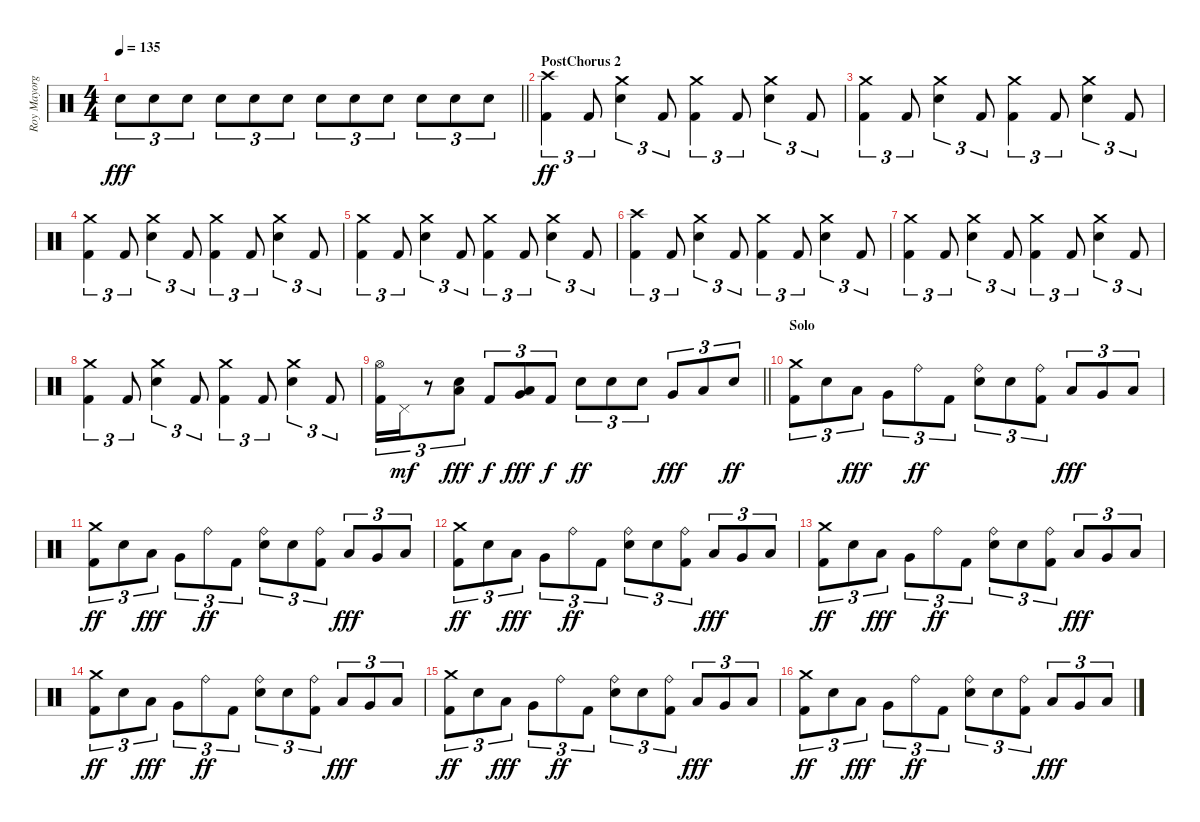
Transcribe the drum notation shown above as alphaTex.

\track ("Roy Mayorga" "Roy Mayorg") {instrument percussion}
\staff {score}
\articulation defaults
\ts (4 4)
\tempo 135
\clef neutral
\barLineRight lightlight
\ks c "Electric Snare (hit)".8{tu (3 2) dy fff} "Electric Snare (hit)".8{tu (3 2)} "Electric Snare (hit)".8{tu (3 2)} "Electric Snare (hit)".8{tu (3 2)} "Electric Snare (hit)".8{tu (3 2)} "Electric Snare (hit)".8{tu (3 2)} "Electric Snare (hit)".8{tu (3 2)} "Electric Snare (hit)".8{tu (3 2)} "Electric Snare (hit)".8{tu (3 2)} "Electric Snare (hit)".8{tu (3 2)} "Electric Snare (hit)".8{tu (3 2)} "Electric Snare (hit)".8{tu (3 2)}
|
\section ("" "PostChorus 2")
("Crash high (hit)" "Kick (hit) 2").4{tu (3 2) dy ff} "Kick (hit) 2".8{tu (3 2)} ("Crash medium (hit)" "Electric Snare (hit)").4{tu (3 2)} "Kick (hit) 2".8{tu (3 2)} ("Crash medium (hit)" "Kick (hit) 2").4{tu (3 2)} "Kick (hit) 2".8{tu (3 2)} ("Crash medium (hit)" "Electric Snare (hit)").4{tu (3 2)} "Kick (hit) 2".8{tu (3 2)} |
("Crash medium (hit)" "Kick (hit) 2").4{tu (3 2)} "Kick (hit) 2".8{tu (3 2)} ("Crash medium (hit)" "Electric Snare (hit)").4{tu (3 2)} "Kick (hit) 2".8{tu (3 2)} ("Crash medium (hit)" "Kick (hit) 2").4{tu (3 2)} "Kick (hit) 2".8{tu (3 2)} ("Crash medium (hit)" "Electric Snare (hit)").4{tu (3 2)} "Kick (hit) 2".8{tu (3 2)} |
("Crash medium (hit)" "Kick (hit) 2").4{tu (3 2)} "Kick (hit) 2".8{tu (3 2)} ("Crash medium (hit)" "Electric Snare (hit)").4{tu (3 2)} "Kick (hit) 2".8{tu (3 2)} ("Crash medium (hit)" "Kick (hit) 2").4{tu (3 2)} "Kick (hit) 2".8{tu (3 2)} ("Crash medium (hit)" "Electric Snare (hit)").4{tu (3 2)} "Kick (hit) 2".8{tu (3 2)} |
("Crash medium (hit)" "Kick (hit) 2").4{tu (3 2)} "Kick (hit) 2".8{tu (3 2)} ("Crash medium (hit)" "Electric Snare (hit)").4{tu (3 2)} "Kick (hit) 2".8{tu (3 2)} ("Crash medium (hit)" "Kick (hit) 2").4{tu (3 2)} "Kick (hit) 2".8{tu (3 2)} ("Crash medium (hit)" "Electric Snare (hit)").4{tu (3 2)} "Kick (hit) 2".8{tu (3 2)} |
("Crash high (hit)" "Kick (hit) 2").4{tu (3 2)} "Kick (hit) 2".8{tu (3 2)} ("Crash medium (hit)" "Electric Snare (hit)").4{tu (3 2)} "Kick (hit) 2".8{tu (3 2)} ("Crash medium (hit)" "Kick (hit) 2").4{tu (3 2)} "Kick (hit) 2".8{tu (3 2)} ("Crash medium (hit)" "Electric Snare (hit)").4{tu (3 2)} "Kick (hit) 2".8{tu (3 2)} |
("Crash medium (hit)" "Kick (hit) 2").4{tu (3 2)} "Kick (hit) 2".8{tu (3 2)} ("Crash medium (hit)" "Electric Snare (hit)").4{tu (3 2)} "Kick (hit) 2".8{tu (3 2)} ("Crash medium (hit)" "Kick (hit) 2").4{tu (3 2)} "Kick (hit) 2".8{tu (3 2)} ("Crash medium (hit)" "Electric Snare (hit)").4{tu (3 2)} "Kick (hit) 2".8{tu (3 2)} |
("Crash medium (hit)" "Kick (hit) 2").4{tu (3 2)} "Kick (hit) 2".8{tu (3 2)} ("Crash medium (hit)" "Electric Snare (hit)").4{tu (3 2)} "Kick (hit) 2".8{tu (3 2)} ("Crash medium (hit)" "Kick (hit) 2").4{tu (3 2)} "Kick (hit) 2".8{tu (3 2)} ("Crash medium (hit)" "Electric Snare (hit)").4{tu (3 2)} "Kick (hit) 2".8{tu (3 2)} |
\barLineRight lightlight
("Hi-Hat (open)" "Kick (hit) 2").16{tu (3 2)} "Pedal Hi-Hat (hit)".16{tu (3 2) dy mf} r.8{tu (3 2)} ("Electric Snare (hit)" "Low Floor Tom (hit)").8{tu (3 2) dy fff} "Kick (hit) 2".8{tu (3 2) dy f} ("Very Low Tom (hit)" "Low Floor Tom (hit)").8{tu (3 2) dy fff} "Kick (hit) 2".8{tu (3 2) dy f} "Electric Snare (hit)".8{tu (3 2) dy ff} "Electric Snare (hit)".8{tu (3 2)} "Electric Snare (hit)".8{tu (3 2)} "Very Low Tom (hit)".8{tu (3 2) dy fff} "Low Floor Tom (hit)".8{tu (3 2)} "Electric Snare (hit)".8{tu (3 2) dy ff} |
\section ("" "Solo")
("Crash medium (hit)" "Kick (hit) 2").8{tu (3 2)} "Electric Snare (hit)".8{tu (3 2)} "Low Tom (hit)".8{tu (3 2) dy fff} "Very Low Tom (hit)".8{tu (3 2)} "Ride (bell)".8{tu (3 2) dy ff} "Kick (hit) 2".8{tu (3 2)} ("Ride (bell)" "Electric Snare (hit)").8{tu (3 2)} "Electric Snare (hit)".8{tu (3 2)} ("Ride (bell)" "Kick (hit) 2").8{tu (3 2)} "Low Tom (hit)".8{tu (3 2) dy fff} "Very Low Tom (hit)".8{tu (3 2)} "Low Floor Tom (hit)".8{tu (3 2)} |
("Crash medium (hit)" "Kick (hit) 2").8{tu (3 2) dy ff} "Electric Snare (hit)".8{tu (3 2)} "Low Tom (hit)".8{tu (3 2) dy fff} "Very Low Tom (hit)".8{tu (3 2)} "Ride (bell)".8{tu (3 2) dy ff} "Kick (hit) 2".8{tu (3 2)} ("Ride (bell)" "Electric Snare (hit)").8{tu (3 2)} "Electric Snare (hit)".8{tu (3 2)} ("Ride (bell)" "Kick (hit) 2").8{tu (3 2)} "Low Tom (hit)".8{tu (3 2) dy fff} "Very Low Tom (hit)".8{tu (3 2)} "Low Floor Tom (hit)".8{tu (3 2)} |
("Crash medium (hit)" "Kick (hit) 2").8{tu (3 2) dy ff} "Electric Snare (hit)".8{tu (3 2)} "Low Tom (hit)".8{tu (3 2) dy fff} "Very Low Tom (hit)".8{tu (3 2)} "Ride (bell)".8{tu (3 2) dy ff} "Kick (hit) 2".8{tu (3 2)} ("Ride (bell)" "Electric Snare (hit)").8{tu (3 2)} "Electric Snare (hit)".8{tu (3 2)} ("Ride (bell)" "Kick (hit) 2").8{tu (3 2)} "Low Tom (hit)".8{tu (3 2) dy fff} "Very Low Tom (hit)".8{tu (3 2)} "Low Floor Tom (hit)".8{tu (3 2)} |
("Crash medium (hit)" "Kick (hit) 2").8{tu (3 2) dy ff} "Electric Snare (hit)".8{tu (3 2)} "Low Tom (hit)".8{tu (3 2) dy fff} "Very Low Tom (hit)".8{tu (3 2)} "Ride (bell)".8{tu (3 2) dy ff} "Kick (hit) 2".8{tu (3 2)} ("Ride (bell)" "Electric Snare (hit)").8{tu (3 2)} "Electric Snare (hit)".8{tu (3 2)} ("Ride (bell)" "Kick (hit) 2").8{tu (3 2)} "Low Tom (hit)".8{tu (3 2) dy fff} "Very Low Tom (hit)".8{tu (3 2)} "Low Floor Tom (hit)".8{tu (3 2)} |
("Crash medium (hit)" "Kick (hit) 2").8{tu (3 2) dy ff} "Electric Snare (hit)".8{tu (3 2)} "Low Tom (hit)".8{tu (3 2) dy fff} "Very Low Tom (hit)".8{tu (3 2)} "Ride (bell)".8{tu (3 2) dy ff} "Kick (hit) 2".8{tu (3 2)} ("Ride (bell)" "Electric Snare (hit)").8{tu (3 2)} "Electric Snare (hit)".8{tu (3 2)} ("Ride (bell)" "Kick (hit) 2").8{tu (3 2)} "Low Tom (hit)".8{tu (3 2) dy fff} "Very Low Tom (hit)".8{tu (3 2)} "Low Floor Tom (hit)".8{tu (3 2)} |
("Crash medium (hit)" "Kick (hit) 2").8{tu (3 2) dy ff} "Electric Snare (hit)".8{tu (3 2)} "Low Tom (hit)".8{tu (3 2) dy fff} "Very Low Tom (hit)".8{tu (3 2)} "Ride (bell)".8{tu (3 2) dy ff} "Kick (hit) 2".8{tu (3 2)} ("Ride (bell)" "Electric Snare (hit)").8{tu (3 2)} "Electric Snare (hit)".8{tu (3 2)} ("Ride (bell)" "Kick (hit) 2").8{tu (3 2)} "Low Tom (hit)".8{tu (3 2) dy fff} "Very Low Tom (hit)".8{tu (3 2)} "Low Floor Tom (hit)".8{tu (3 2)} |
("Crash medium (hit)" "Kick (hit) 2").8{tu (3 2) dy ff} "Electric Snare (hit)".8{tu (3 2)} "Low Tom (hit)".8{tu (3 2) dy fff} "Very Low Tom (hit)".8{tu (3 2)} "Ride (bell)".8{tu (3 2) dy ff} "Kick (hit) 2".8{tu (3 2)} ("Ride (bell)" "Electric Snare (hit)").8{tu (3 2)} "Electric Snare (hit)".8{tu (3 2)} ("Ride (bell)" "Kick (hit) 2").8{tu (3 2)} "Low Tom (hit)".8{tu (3 2) dy fff} "Very Low Tom (hit)".8{tu (3 2)} "Low Floor Tom (hit)".8{tu (3 2)}
